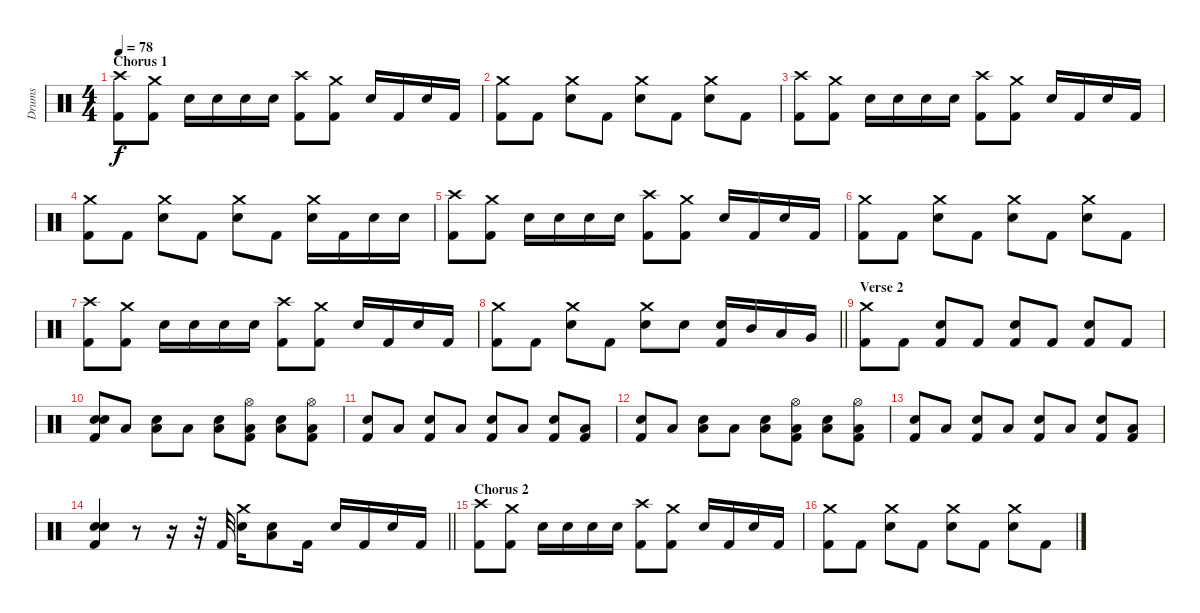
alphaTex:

\track ("Drums" "Drums") {instrument percussion}
\staff {score}
\articulation defaults
\ts (4 4)
\section ("" "Chorus 1")
\tempo 78
\clef neutral
\ks c
("Crash high (hit)" "Kick (hit) 2").8{dy f} ("Crash medium (hit)" "Kick (hit) 2").8 "Electric Snare (hit)".16 "Electric Snare (hit)".16 "Electric Snare (hit)".16 "Electric Snare (hit)".16 ("Crash high (hit)" "Kick (hit) 2").8 ("Crash medium (hit)" "Kick (hit) 2").8 "Electric Snare (hit)".16 "Kick (hit) 2".16 "Electric Snare (hit)".16 "Kick (hit) 2".16 |
("Crash medium (hit)" "Kick (hit) 2").8 "Kick (hit) 2".8 ("Crash medium (hit)" "Electric Snare (hit)").8 "Kick (hit) 2".8 ("Crash medium (hit)" "Electric Snare (hit)").8 "Kick (hit) 2".8 ("Crash medium (hit)" "Electric Snare (hit)").8 "Kick (hit) 2".8 |
("Crash high (hit)" "Kick (hit) 2").8 ("Crash medium (hit)" "Kick (hit) 2").8 "Electric Snare (hit)".16 "Electric Snare (hit)".16 "Electric Snare (hit)".16 "Electric Snare (hit)".16 ("Crash high (hit)" "Kick (hit) 2").8 ("Crash medium (hit)" "Kick (hit) 2").8 "Electric Snare (hit)".16 "Kick (hit) 2".16 "Electric Snare (hit)".16 "Kick (hit) 2".16 |
("Crash medium (hit)" "Kick (hit) 2").8 "Kick (hit) 2".8 ("Crash medium (hit)" "Electric Snare (hit)").8 "Kick (hit) 2".8 ("Crash medium (hit)" "Electric Snare (hit)").8 "Kick (hit) 2".8 ("Crash medium (hit)" "Electric Snare (hit)").16 "Kick (hit) 2".16 "Electric Snare (hit)".16 "Electric Snare (hit)".16 |
("Crash high (hit)" "Kick (hit) 2").8 ("Crash medium (hit)" "Kick (hit) 2").8 "Electric Snare (hit)".16 "Electric Snare (hit)".16 "Electric Snare (hit)".16 "Electric Snare (hit)".16 ("Crash high (hit)" "Kick (hit) 2").8 ("Crash medium (hit)" "Kick (hit) 2").8 "Electric Snare (hit)".16 "Kick (hit) 2".16 "Electric Snare (hit)".16 "Kick (hit) 2".16 |
("Crash medium (hit)" "Kick (hit) 2").8 "Kick (hit) 2".8 ("Crash medium (hit)" "Electric Snare (hit)").8 "Kick (hit) 2".8 ("Crash medium (hit)" "Electric Snare (hit)").8 "Kick (hit) 2".8 ("Crash medium (hit)" "Electric Snare (hit)").8 "Kick (hit) 2".8 |
("Crash high (hit)" "Kick (hit) 2").8 ("Crash medium (hit)" "Kick (hit) 2").8 "Electric Snare (hit)".16 "Electric Snare (hit)".16 "Electric Snare (hit)".16 "Electric Snare (hit)".16 ("Crash high (hit)" "Kick (hit) 2").8 ("Crash medium (hit)" "Kick (hit) 2").8 "Electric Snare (hit)".16 "Kick (hit) 2".16 "Electric Snare (hit)".16 "Kick (hit) 2".16 |
\barLineRight lightlight
("Crash medium (hit)" "Kick (hit) 2").8 "Kick (hit) 2".8 ("Crash medium (hit)" "Electric Snare (hit)").8 "Kick (hit) 2".8 ("Crash medium (hit)" "Electric Snare (hit)").8 "Electric Snare (hit)".8 ("Electric Snare (hit)" "Kick (hit) 2").16 "Mid Tom (hit)".16 "Low Tom (hit)".16 "Very Low Tom (hit)".16 |
\section ("" "Verse 2")
("Crash medium (hit)" "Kick (hit) 2").8 "Kick (hit) 2".8 ("Electric Snare (hit)" "Kick (hit) 2").8 "Kick (hit) 2".8 ("Electric Snare (hit)" "Kick (hit) 2").8 "Kick (hit) 2".8 ("Electric Snare (hit)" "Kick (hit) 2").8 "Kick (hit) 2".8 |
("Electric Snare (hit)" "Electric Snare (hit)" "Kick (hit) 2").8 "Low Floor Tom (hit)".8 ("Electric Snare (hit)" "Low Floor Tom (hit)").8 "Low Floor Tom (hit)".8 ("Electric Snare (hit)" "Low Floor Tom (hit)").8 ("Low Floor Tom (hit)" "Hi-Hat (open)" "Kick (hit) 2").8 ("Electric Snare (hit)" "Low Floor Tom (hit)").8 ("Low Floor Tom (hit)" "Hi-Hat (open)" "Kick (hit) 2").8 |
("Electric Snare (hit)" "Kick (hit) 2").8 "Low Floor Tom (hit)".8 ("Electric Snare (hit)" "Kick (hit) 2").8 "Low Floor Tom (hit)".8 ("Electric Snare (hit)" "Kick (hit) 2").8 "Low Floor Tom (hit)".8 ("Electric Snare (hit)" "Kick (hit) 2").8 ("Kick (hit) 2" "Low Floor Tom (hit)").8 |
("Electric Snare (hit)" "Kick (hit) 2").8 "Low Floor Tom (hit)".8 ("Electric Snare (hit)" "Low Floor Tom (hit)").8 "Low Floor Tom (hit)".8 ("Electric Snare (hit)" "Low Floor Tom (hit)").8 ("Low Floor Tom (hit)" "Hi-Hat (open)" "Kick (hit) 2").8 ("Electric Snare (hit)" "Low Floor Tom (hit)").8 ("Low Floor Tom (hit)" "Hi-Hat (open)" "Kick (hit) 2").8 |
("Electric Snare (hit)" "Kick (hit) 2").8 "Low Floor Tom (hit)".8 ("Electric Snare (hit)" "Kick (hit) 2").8 "Low Floor Tom (hit)".8 ("Electric Snare (hit)" "Kick (hit) 2").8 "Low Floor Tom (hit)".8 ("Electric Snare (hit)" "Kick (hit) 2").8 ("Kick (hit) 2" "Low Floor Tom (hit)").8 |
\barLineRight lightlight
("Electric Snare (hit)" "Electric Snare (hit)" "Kick (hit) 2").4 r.8 r.16 r.32 "Kick (hit) 2".32 ("Electric Snare (hit)" "Crash medium (hit)").16 ("Electric Snare (hit)" "Low Floor Tom (hit)").8 "Kick (hit) 2".16 "Electric Snare (hit)".16 "Kick (hit) 2".16 "Electric Snare (hit)".16 "Kick (hit) 2".16 |
\section ("" "Chorus 2")
("Crash high (hit)" "Kick (hit) 2").8 ("Crash medium (hit)" "Kick (hit) 2").8 "Electric Snare (hit)".16 "Electric Snare (hit)".16 "Electric Snare (hit)".16 "Electric Snare (hit)".16 ("Crash high (hit)" "Kick (hit) 2").8 ("Crash medium (hit)" "Kick (hit) 2").8 "Electric Snare (hit)".16 "Kick (hit) 2".16 "Electric Snare (hit)".16 "Kick (hit) 2".16 |
("Crash medium (hit)" "Kick (hit) 2").8 "Kick (hit) 2".8 ("Crash medium (hit)" "Electric Snare (hit)").8 "Kick (hit) 2".8 ("Crash medium (hit)" "Electric Snare (hit)").8 "Kick (hit) 2".8 ("Crash medium (hit)" "Electric Snare (hit)").8 "Kick (hit) 2".8
